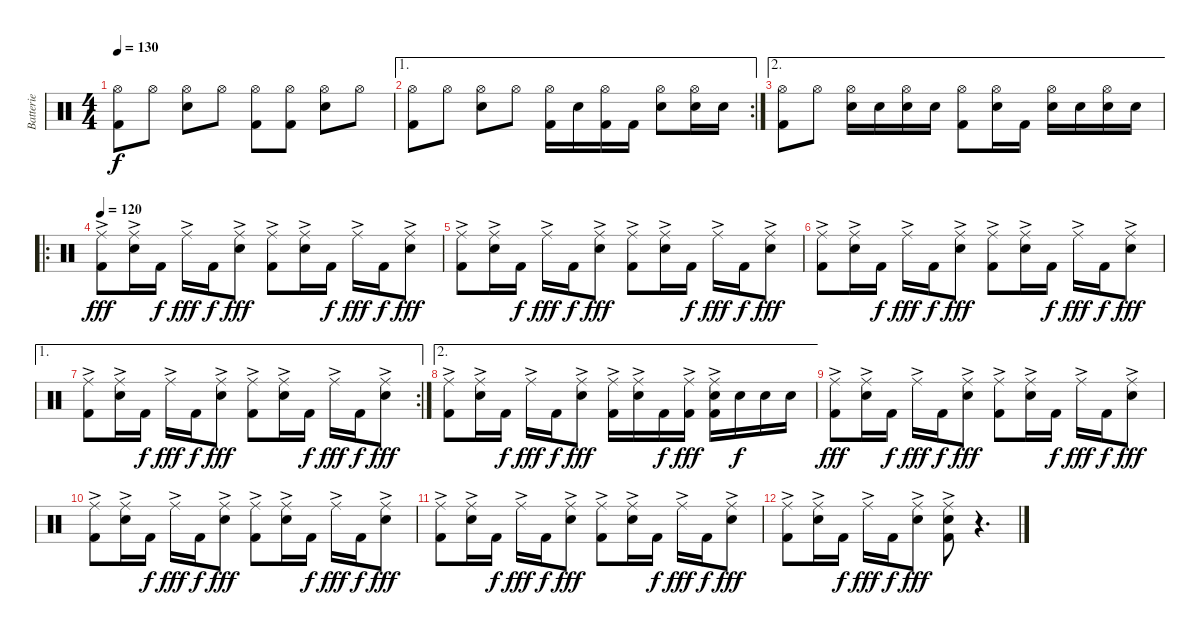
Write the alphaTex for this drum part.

\track ("Batterie" "Batterie") {instrument percussion}
\staff {score}
\articulation defaults
\ts (4 4)
\tempo 130
\clef neutral
\ks c
("Hi-Hat (open)" "Kick (hit) 2").8{dy f} "Hi-Hat (open)".8 ("Hi-Hat (open)" "Snare (hit) 2").8 "Hi-Hat (open)".8 ("Hi-Hat (open)" "Kick (hit) 2").8 ("Hi-Hat (open)" "Kick (hit) 2").8 ("Hi-Hat (open)" "Snare (hit) 2").8 "Hi-Hat (open)".8 |
\ae 1
\rc 2
("Hi-Hat (open)" "Kick (hit) 2").8 "Hi-Hat (open)".8 ("Hi-Hat (open)" "Snare (hit) 2").8 "Hi-Hat (open)".8 ("Hi-Hat (open)" "Kick (hit) 2").16 "Snare (hit) 2".16 ("Hi-Hat (open)" "Kick (hit) 2").16 "Kick (hit) 2".16 ("Hi-Hat (open)" "Snare (hit) 2").8 ("Hi-Hat (open)" "Snare (hit) 2").16 "Snare (hit) 2".16 |
\ae 2
("Hi-Hat (open)" "Kick (hit) 2").8 "Hi-Hat (open)".8 ("Hi-Hat (open)" "Snare (hit) 2").16 "Snare (hit) 2".16 ("Hi-Hat (open)" "Snare (hit) 2").16 "Snare (hit) 2".16 ("Hi-Hat (open)" "Kick (hit) 2").8 ("Hi-Hat (open)" "Snare (hit) 2").16 "Kick (hit) 2".16 ("Hi-Hat (open)" "Snare (hit) 2").16 "Snare (hit) 2".16 ("Hi-Hat (open)" "Snare (hit) 2").16 "Snare (hit) 2".16 |
\ro
\tempo 120
("Ride (middle)"{ac} "Kick (hit) 2").8{dy fff} ("Ride (middle)"{ac} "Snare (hit) 2").16 "Kick (hit) 2".16{dy f} "Ride (middle)"{ac}.16{dy fff} "Kick (hit) 2".16{dy f} ("Ride (middle)"{ac} "Snare (hit) 2").8{dy fff} ("Ride (middle)"{ac} "Kick (hit) 2").8 ("Ride (middle)"{ac} "Snare (hit) 2").16 "Kick (hit) 2".16{dy f} "Ride (middle)"{ac}.16{dy fff} "Kick (hit) 2".16{dy f} ("Ride (middle)"{ac} "Snare (hit) 2").8{dy fff} |
("Ride (middle)"{ac} "Kick (hit) 2").8 ("Ride (middle)"{ac} "Snare (hit) 2").16 "Kick (hit) 2".16{dy f} "Ride (middle)"{ac}.16{dy fff} "Kick (hit) 2".16{dy f} ("Ride (middle)"{ac} "Snare (hit) 2").8{dy fff} ("Ride (middle)"{ac} "Kick (hit) 2").8 ("Ride (middle)"{ac} "Snare (hit) 2").16 "Kick (hit) 2".16{dy f} "Ride (middle)"{ac}.16{dy fff} "Kick (hit) 2".16{dy f} ("Ride (middle)"{ac} "Snare (hit) 2").8{dy fff} |
("Ride (middle)"{ac} "Kick (hit) 2").8 ("Ride (middle)"{ac} "Snare (hit) 2").16 "Kick (hit) 2".16{dy f} "Ride (middle)"{ac}.16{dy fff} "Kick (hit) 2".16{dy f} ("Ride (middle)"{ac} "Snare (hit) 2").8{dy fff} ("Ride (middle)"{ac} "Kick (hit) 2").8 ("Ride (middle)"{ac} "Snare (hit) 2").16 "Kick (hit) 2".16{dy f} "Ride (middle)"{ac}.16{dy fff} "Kick (hit) 2".16{dy f} ("Ride (middle)"{ac} "Snare (hit) 2").8{dy fff} |
\ae 1
\rc 2
("Ride (middle)"{ac} "Kick (hit) 2").8 ("Ride (middle)"{ac} "Snare (hit) 2").16 "Kick (hit) 2".16{dy f} "Ride (middle)"{ac}.16{dy fff} "Kick (hit) 2".16{dy f} ("Ride (middle)"{ac} "Snare (hit) 2").8{dy fff} ("Ride (middle)"{ac} "Kick (hit) 2").8 ("Ride (middle)"{ac} "Snare (hit) 2").16 "Kick (hit) 2".16{dy f} "Ride (middle)"{ac}.16{dy fff} "Kick (hit) 2".16{dy f} ("Ride (middle)"{ac} "Snare (hit) 2").8{dy fff} |
\ae 2
("Ride (middle)"{ac} "Kick (hit) 2").8 ("Ride (middle)"{ac} "Snare (hit) 2").16 "Kick (hit) 2".16{dy f} "Ride (middle)"{ac}.16{dy fff} "Kick (hit) 2".16{dy f} ("Ride (middle)"{ac} "Snare (hit) 2").8{dy fff} ("Ride (middle)"{ac} "Kick (hit) 2").16 ("Ride (middle)"{ac} "Snare (hit) 2").16 "Kick (hit) 2".16{dy f} ("Ride (middle)"{ac} "Kick (hit) 2").16{dy fff} ("Ride (middle)"{ac} "Snare (hit) 2" "Kick (hit) 2").16 "Snare (hit) 2".16{dy f} "Snare (hit) 2".16 "Snare (hit) 2".16 |
("Ride (middle)"{ac} "Kick (hit) 2").8{dy fff} ("Ride (middle)"{ac} "Snare (hit) 2").16 "Kick (hit) 2".16{dy f} "Ride (middle)"{ac}.16{dy fff} "Kick (hit) 2".16{dy f} ("Ride (middle)"{ac} "Snare (hit) 2").8{dy fff} ("Ride (middle)"{ac} "Kick (hit) 2").8 ("Ride (middle)"{ac} "Snare (hit) 2").16 "Kick (hit) 2".16{dy f} "Ride (middle)"{ac}.16{dy fff} "Kick (hit) 2".16{dy f} ("Ride (middle)"{ac} "Snare (hit) 2").8{dy fff} |
("Ride (middle)"{ac} "Kick (hit) 2").8 ("Ride (middle)"{ac} "Snare (hit) 2").16 "Kick (hit) 2".16{dy f} "Ride (middle)"{ac}.16{dy fff} "Kick (hit) 2".16{dy f} ("Ride (middle)"{ac} "Snare (hit) 2").8{dy fff} ("Ride (middle)"{ac} "Kick (hit) 2").8 ("Ride (middle)"{ac} "Snare (hit) 2").16 "Kick (hit) 2".16{dy f} "Ride (middle)"{ac}.16{dy fff} "Kick (hit) 2".16{dy f} ("Ride (middle)"{ac} "Snare (hit) 2").8{dy fff} |
("Ride (middle)"{ac} "Kick (hit) 2").8 ("Ride (middle)"{ac} "Snare (hit) 2").16 "Kick (hit) 2".16{dy f} "Ride (middle)"{ac}.16{dy fff} "Kick (hit) 2".16{dy f} ("Ride (middle)"{ac} "Snare (hit) 2").8{dy fff} ("Ride (middle)"{ac} "Kick (hit) 2").8 ("Ride (middle)"{ac} "Snare (hit) 2").16 "Kick (hit) 2".16{dy f} "Ride (middle)"{ac}.16{dy fff} "Kick (hit) 2".16{dy f} ("Ride (middle)"{ac} "Snare (hit) 2").8{dy fff} |
("Ride (middle)"{ac} "Kick (hit) 2").8 ("Ride (middle)"{ac} "Snare (hit) 2").16 "Kick (hit) 2".16{dy f} "Ride (middle)"{ac}.16{dy fff} "Kick (hit) 2".16{dy f} ("Ride (middle)"{ac} "Snare (hit) 2").8{dy fff} ("Ride (middle)"{ac} "Snare (hit) 2" "Kick (hit) 2").8 r.4{d}
